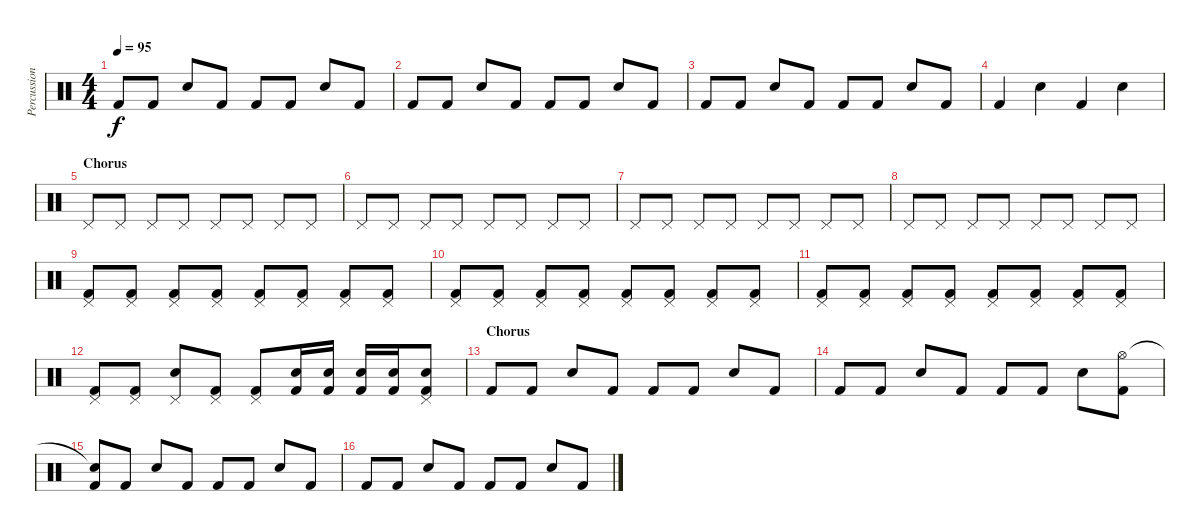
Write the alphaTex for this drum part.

\track ("Percussion" "Percussion") {instrument percussion}
\staff {score}
\articulation defaults
\ts (4 4)
\tempo 95
\clef neutral
\ks c "Kick (hit) 2".8{dy f} "Kick (hit) 2".8 "Electric Snare (hit)".8 "Kick (hit) 2".8 "Kick (hit) 2".8 "Kick (hit) 2".8 "Electric Snare (hit)".8 "Kick (hit) 2".8
|
"Kick (hit) 2".8 "Kick (hit) 2".8 "Electric Snare (hit)".8 "Kick (hit) 2".8 "Kick (hit) 2".8 "Kick (hit) 2".8 "Electric Snare (hit)".8 "Kick (hit) 2".8 |
"Kick (hit) 2".8 "Kick (hit) 2".8 "Electric Snare (hit)".8 "Kick (hit) 2".8 "Kick (hit) 2".8 "Kick (hit) 2".8 "Electric Snare (hit)".8 "Kick (hit) 2".8 |
"Kick (hit) 2".4 "Electric Snare (hit)".4 "Kick (hit) 2".4 "Electric Snare (hit)".4 |
\section ("" "Chorus")
"Pedal Hi-Hat (hit)".8{volume 7} "Pedal Hi-Hat (hit)".8 "Pedal Hi-Hat (hit)".8 "Pedal Hi-Hat (hit)".8 "Pedal Hi-Hat (hit)".8 "Pedal Hi-Hat (hit)".8 "Pedal Hi-Hat (hit)".8 "Pedal Hi-Hat (hit)".8 |
"Pedal Hi-Hat (hit)".8 "Pedal Hi-Hat (hit)".8 "Pedal Hi-Hat (hit)".8 "Pedal Hi-Hat (hit)".8 "Pedal Hi-Hat (hit)".8 "Pedal Hi-Hat (hit)".8 "Pedal Hi-Hat (hit)".8 "Pedal Hi-Hat (hit)".8 |
"Pedal Hi-Hat (hit)".8 "Pedal Hi-Hat (hit)".8 "Pedal Hi-Hat (hit)".8 "Pedal Hi-Hat (hit)".8 "Pedal Hi-Hat (hit)".8 "Pedal Hi-Hat (hit)".8 "Pedal Hi-Hat (hit)".8 "Pedal Hi-Hat (hit)".8 |
"Pedal Hi-Hat (hit)".8 "Pedal Hi-Hat (hit)".8 "Pedal Hi-Hat (hit)".8 "Pedal Hi-Hat (hit)".8 "Pedal Hi-Hat (hit)".8 "Pedal Hi-Hat (hit)".8 "Pedal Hi-Hat (hit)".8 "Pedal Hi-Hat (hit)".8 |
("Pedal Hi-Hat (hit)" "Kick (hit) 2").8{volume 10} ("Pedal Hi-Hat (hit)" "Kick (hit) 2").8 ("Pedal Hi-Hat (hit)" "Kick (hit) 2").8 ("Pedal Hi-Hat (hit)" "Kick (hit) 2").8 ("Pedal Hi-Hat (hit)" "Kick (hit) 2").8 ("Pedal Hi-Hat (hit)" "Kick (hit) 2").8 ("Pedal Hi-Hat (hit)" "Kick (hit) 2").8 ("Pedal Hi-Hat (hit)" "Kick (hit) 2").8 |
("Pedal Hi-Hat (hit)" "Kick (hit) 2").8 ("Pedal Hi-Hat (hit)" "Kick (hit) 2").8 ("Pedal Hi-Hat (hit)" "Kick (hit) 2").8 ("Pedal Hi-Hat (hit)" "Kick (hit) 2").8 ("Pedal Hi-Hat (hit)" "Kick (hit) 2").8 ("Pedal Hi-Hat (hit)" "Kick (hit) 2").8 ("Pedal Hi-Hat (hit)" "Kick (hit) 2").8 ("Pedal Hi-Hat (hit)" "Kick (hit) 2").8 |
("Pedal Hi-Hat (hit)" "Kick (hit) 2").8{volume 13} ("Pedal Hi-Hat (hit)" "Kick (hit) 2").8 ("Pedal Hi-Hat (hit)" "Kick (hit) 2").8 ("Pedal Hi-Hat (hit)" "Kick (hit) 2").8 ("Pedal Hi-Hat (hit)" "Kick (hit) 2").8 ("Pedal Hi-Hat (hit)" "Kick (hit) 2").8 ("Pedal Hi-Hat (hit)" "Kick (hit) 2").8 ("Pedal Hi-Hat (hit)" "Kick (hit) 2").8 |
("Pedal Hi-Hat (hit)" "Kick (hit) 2").8 ("Pedal Hi-Hat (hit)" "Kick (hit) 2").8 ("Pedal Hi-Hat (hit)" "Electric Snare (hit)").8 ("Pedal Hi-Hat (hit)" "Kick (hit) 2").8 ("Pedal Hi-Hat (hit)" "Kick (hit) 2").8 ("Electric Snare (hit)" "Kick (hit) 2").16 ("Electric Snare (hit)" "Kick (hit) 2").16 ("Electric Snare (hit)" "Kick (hit) 2").16 ("Electric Snare (hit)" "Kick (hit) 2").16 ("Pedal Hi-Hat (hit)" "Electric Snare (hit)" "Kick (hit) 2").8 |
\section ("" "Chorus")
"Kick (hit) 2".8 "Kick (hit) 2".8 "Electric Snare (hit)".8 "Kick (hit) 2".8 "Kick (hit) 2".8 "Kick (hit) 2".8 "Electric Snare (hit)".8 "Kick (hit) 2".8 |
"Kick (hit) 2".8 "Kick (hit) 2".8 "Electric Snare (hit)".8 "Kick (hit) 2".8 "Kick (hit) 2".8 "Kick (hit) 2".8 "Electric Snare (hit)".8 ("Hi-Hat (open)" "Kick (hit) 2").8 |
("Snare (hit)"{t} "Kick (hit) 2").8 "Kick (hit) 2".8 "Electric Snare (hit)".8 "Kick (hit) 2".8 "Kick (hit) 2".8 "Kick (hit) 2".8 "Electric Snare (hit)".8 "Kick (hit) 2".8 |
"Kick (hit) 2".8 "Kick (hit) 2".8 "Electric Snare (hit)".8 "Kick (hit) 2".8 "Kick (hit) 2".8 "Kick (hit) 2".8 "Electric Snare (hit)".8 "Kick (hit) 2".8
